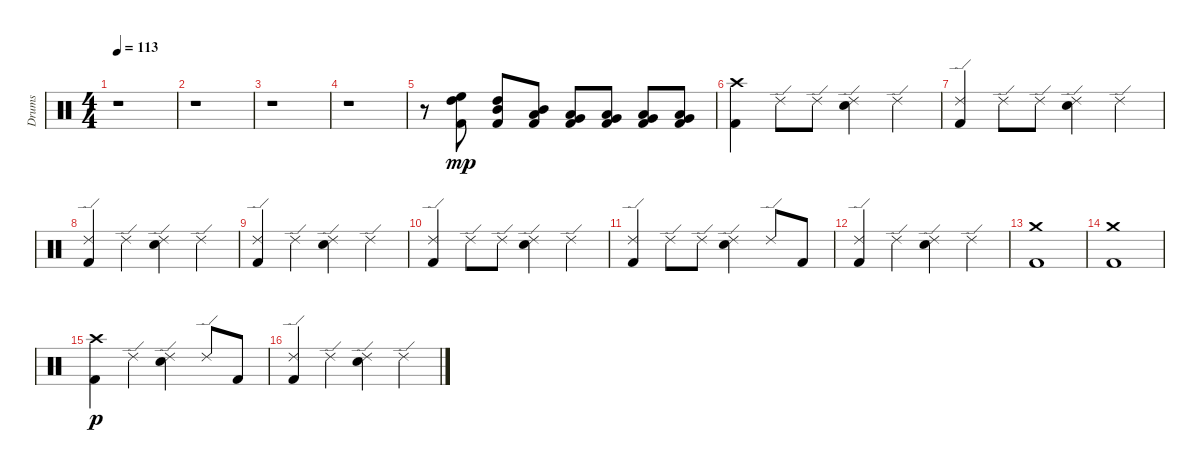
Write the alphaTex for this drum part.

\track ("Drums" "Drums") {instrument percussion}
\staff {score}
\articulation defaults
\ts (4 4)
\tempo 113
\clef neutral
\ks c
r.1{dy mp} |
r.1 |
r.1 |
r.1 |
r.8 ("Kick (hit) 2" "High Tom (hit)" "High Floor Tom (hit)").8 ("Kick (hit) 2" "Mid Tom (hit)" "High Tom (hit)").8 ("Kick (hit) 2" "Low Tom (hit)" "Mid Tom (hit)").8 ("Kick (hit) 2" "Very Low Tom (hit)" "Low Tom (hit)").8 ("Kick (hit) 2" "Low Floor Tom (hit)" "Very Low Tom (hit)").8 ("Kick (hit) 2" "Very Low Tom (hit)" "Low Tom (hit)").8 ("Kick (hit) 2" "Low Floor Tom (hit)" "Very Low Tom (hit)").8 |
("Kick (hit) 2" "Crash high (hit)").4 "Ride (edge) 2".8 "Ride (edge) 2".8 ("Snare (hit) 2" "Ride (edge) 2").4 "Ride (edge) 2".4 |
("Kick (hit) 2" "Ride (edge) 2").4 "Ride (edge) 2".8 "Ride (edge) 2".8 ("Snare (hit) 2" "Ride (edge) 2").4 "Ride (edge) 2".4 |
("Kick (hit) 2" "Ride (edge) 2").4 "Ride (edge) 2".4 ("Snare (hit) 2" "Ride (edge) 2").4 "Ride (edge) 2".4 |
("Kick (hit) 2" "Ride (edge) 2").4 "Ride (edge) 2".4 ("Snare (hit) 2" "Ride (edge) 2").4 "Ride (edge) 2".4 |
("Kick (hit) 2" "Ride (edge) 2").4 "Ride (edge) 2".8 "Ride (edge) 2".8 ("Snare (hit) 2" "Ride (edge) 2").4 "Ride (edge) 2".4 |
("Kick (hit) 2" "Ride (edge) 2").4 "Ride (edge) 2".8 "Ride (edge) 2".8 ("Snare (hit) 2" "Ride (edge) 2").4 "Ride (edge) 2".8 "Kick (hit) 2".8 |
("Kick (hit) 2" "Ride (edge) 2").4 "Ride (edge) 2".4 ("Snare (hit) 2" "Ride (edge) 2").4 "Ride (edge) 2".4 |
("Kick (hit) 2" "Crash medium (hit)").1 |
("Kick (hit) 2" "Crash medium (hit)").1 |
("Kick (hit) 2" "Crash high (hit)").4{dy p} "Ride (edge) 2".4 ("Snare (hit) 2" "Ride (edge) 2").4 "Ride (edge) 2".8 "Kick (hit) 2".8 |
("Kick (hit) 2" "Ride (edge) 2").4 "Ride (edge) 2".4 ("Snare (hit) 2" "Ride (edge) 2").4 "Ride (edge) 2".4
